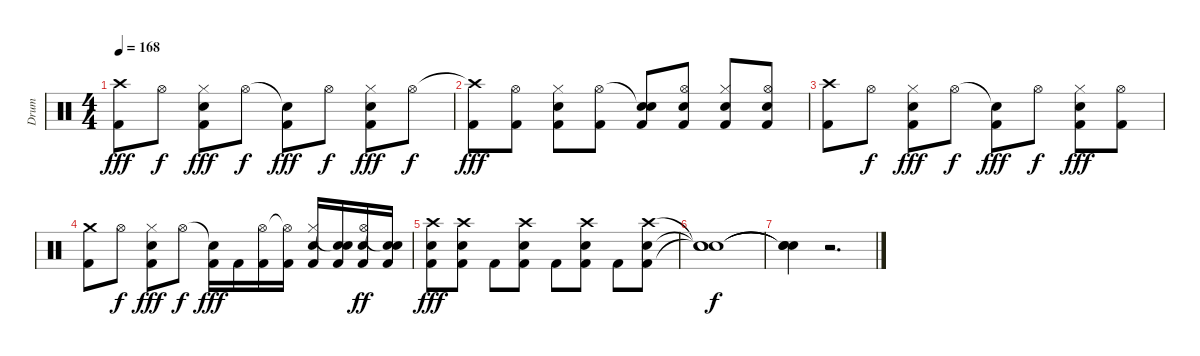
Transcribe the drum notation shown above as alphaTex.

\track ("Drum" "Drum") {instrument percussion}
\staff {score}
\articulation defaults
\ts (4 4)
\tempo 168
\clef neutral
\ks c
("Crash high (hit)"{t} "Kick (hit) 2").8{dy fff} "Hi-Hat (open)".8{dy f} ("Hi-Hat (closed)" "Snare (hit) 2" "Kick (hit) 2").8{dy fff} "Hi-Hat (open)".8{dy f} ("Snare (hit)"{t} "Kick (hit) 2").8{dy fff} "Hi-Hat (open)".8{dy f} ("Hi-Hat (closed)" "Snare (hit) 2" "Kick (hit) 2").8{dy fff} "Hi-Hat (open)".8{dy f} |
("Crash high (hit)"{t} "Kick (hit) 2").8{dy fff} ("Hi-Hat (open)" "Kick (hit) 2").8 ("Hi-Hat (closed)" "Snare (hit) 2" "Kick (hit) 2").8 ("Hi-Hat (open)" "Kick (hit) 2").8 ("Snare (hit)"{t} "Snare (hit) 2" "Kick (hit) 2").8 ("Hi-Hat (open)" "Snare (hit) 2" "Kick (hit) 2").8 ("Hi-Hat (closed)" "Snare (hit) 2" "Kick (hit) 2").8 ("Hi-Hat (open)" "Snare (hit) 2" "Kick (hit) 2").8 |
("Crash high (hit)" "Kick (hit) 2").8 "Hi-Hat (open)".8{dy f} ("Hi-Hat (closed)" "Snare (hit) 2" "Kick (hit) 2").8{dy fff} "Hi-Hat (open)".8{dy f} ("Snare (hit)"{t} "Kick (hit) 2").8{dy fff} "Hi-Hat (open)".8{dy f} ("Hi-Hat (closed)" "Snare (hit) 2" "Kick (hit) 2").8{dy fff} ("Hi-Hat (open)" "Kick (hit) 2").8 |
("Crash medium (hit)" "Kick (hit) 2").8 "Hi-Hat (open)".8{dy f} ("Hi-Hat (closed)" "Snare (hit) 2" "Kick (hit) 2").8{dy fff} "Hi-Hat (open)".8{dy f} ("Snare (hit)"{t} "Kick (hit) 2").16{dy fff} "Kick (hit) 2".16 ("Hi-Hat (open)" "Kick (hit) 2").16 ("Hi-Hat (open)"{t} "Kick (hit) 2").16 ("Hi-Hat (closed)" "Snare (hit) 2" "Kick (hit) 2").16 ("Snare (hit)"{t} "Snare (hit) 2" "Kick (hit) 2").16 ("Hi-Hat (open)" "Snare (hit) 2" "Kick (hit) 2").16{dy ff} ("Snare (hit)"{t} "Snare (hit) 2" "Kick (hit) 2").16 |
("Crash high (hit)" "Snare (hit) 2" "Kick (hit) 2").8{dy fff} ("Crash high (hit)" "Snare (hit) 2" "Kick (hit) 2").8 "Kick (hit) 2".8 ("Crash high (hit)" "Snare (hit) 2" "Kick (hit) 2").8 "Kick (hit) 2".8 ("Crash high (hit)" "Snare (hit) 2" "Kick (hit) 2").8 "Kick (hit) 2".8 ("Crash high (hit)" "Snare (hit) 2" "Kick (hit) 2").8 |
("Snare (hit)"{t} "Snare (hit)"{t} "Snare (hit)"{t}).1{dy f} |
("Snare (hit)"{t} "Snare (hit)"{t} "Snare (hit)"{t}).4 r.2{d}
